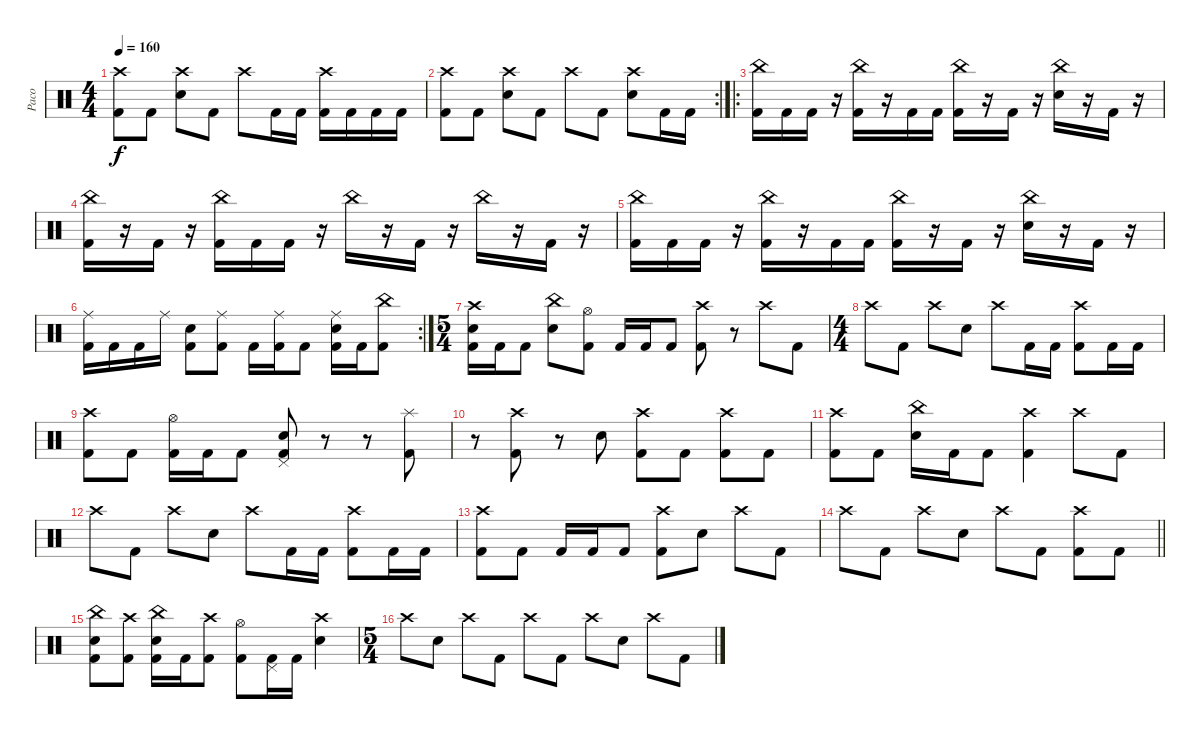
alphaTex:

\track ("Paco" "Paco") {instrument percussion}
\staff {score}
\articulation defaults
\ts (4 4)
\tempo 160
\clef neutral
\ks c
("Crash high (hit)" "Kick (hit) 2").8{dy f} "Kick (hit) 2".8 ("Crash high (hit)" "Electric Snare (hit)").8 "Kick (hit) 2".8 "Crash high (hit)".8 "Kick (hit) 2".16 "Kick (hit) 2".16 ("Crash high (hit)" "Kick (hit) 2").16 "Kick (hit) 2".16 "Kick (hit) 2".16 "Kick (hit) 2".16 |
\rc 2
("Crash high (hit)" "Kick (hit) 2").8 "Kick (hit) 2".8 ("Crash high (hit)" "Electric Snare (hit)").8 "Kick (hit) 2".8 "Crash high (hit)".8 "Kick (hit) 2".8 ("Crash high (hit)" "Electric Snare (hit)").8 "Kick (hit) 2".16 "Kick (hit) 2".16 |
\ro
("China (hit)" "Kick (hit) 2").16 "Kick (hit) 2".16 "Kick (hit) 2".16 r.16 ("China (hit)" "Kick (hit) 2").16 r.16 "Kick (hit) 2".16 "Kick (hit) 2".16 ("China (hit)" "Kick (hit) 2").16 r.16 "Kick (hit) 2".16 r.16 ("China (hit)" "Electric Snare (hit)").16 r.16 "Kick (hit) 2".16 r.16 |
("China (hit)" "Kick (hit) 2").16 r.16 "Kick (hit) 2".16 r.16 ("China (hit)" "Kick (hit) 2").16 "Kick (hit) 2".16 "Kick (hit) 2".16 r.16 "China (hit)".16 r.16 "Kick (hit) 2".16 r.16 "China (hit)".16 r.16 "Kick (hit) 2".16 r.16 |
("China (hit)" "Kick (hit) 2").16 "Kick (hit) 2".16 "Kick (hit) 2".16 r.16 ("China (hit)" "Kick (hit) 2").16 r.16 "Kick (hit) 2".16 "Kick (hit) 2".16 ("China (hit)" "Kick (hit) 2").16 r.16 "Kick (hit) 2".16 r.16 ("China (hit)" "Electric Snare (hit)").16 r.16 "Kick (hit) 2".16 r.16 |
\rc 2
("Ride (middle)" "Kick (hit) 2").16 "Kick (hit) 2".16 "Kick (hit) 2".16 "Ride (middle)".16 ("Electric Snare (hit)" "Kick (hit) 2").8 ("Ride (middle)" "Kick (hit) 2").8 "Kick (hit) 2".16 ("Ride (middle)" "Kick (hit) 2").16 "Kick (hit) 2".8 ("Ride (middle)" "Electric Snare (hit)" "Kick (hit) 2").16 "Kick (hit) 2".16 ("China (hit)" "Kick (hit) 2").8 |
\ts (5 4)
("Crash high (hit)" "Electric Snare (hit)" "Kick (hit) 2").16 "Kick (hit) 2".16 "Kick (hit) 2".8 ("China (hit)" "Electric Snare (hit)").8 ("Hi-Hat (open)" "Kick (hit) 2").8 "Kick (hit) 2".16 "Kick (hit) 2".16 "Kick (hit) 2".8 ("Crash high (hit)" "Kick (hit) 2").8 r.8 "Crash high (hit)".8 "Kick (hit) 2".8 |
\ts (4 4)
"Crash high (hit)".8 "Kick (hit) 2".8 "Crash high (hit)".8 "Electric Snare (hit)".8 "Crash high (hit)".8 "Kick (hit) 2".16 "Kick (hit) 2".16 ("Crash high (hit)" "Kick (hit) 2").8 "Kick (hit) 2".16 "Kick (hit) 2".16 |
("Crash high (hit)" "Kick (hit) 2").8 "Kick (hit) 2".8 ("Hi-Hat (open)" "Kick (hit) 2").16 "Kick (hit) 2".16 "Kick (hit) 2".8 ("Electric Snare (hit)" "Pedal Hi-Hat (hit)" "Kick (hit) 2").8 r.8 r.8 ("Splash (hit)" "Kick (hit) 2").8 |
r.8 ("Crash high (hit)" "Kick (hit) 2").8 r.8 "Electric Snare (hit)".8 ("Crash high (hit)" "Kick (hit) 2").8 "Kick (hit) 2".8 ("Crash high (hit)" "Kick (hit) 2").8 "Kick (hit) 2".8 |
("Crash high (hit)" "Kick (hit) 2").8 "Kick (hit) 2".8 ("China (hit)" "Electric Snare (hit)").16 "Kick (hit) 2".16 "Kick (hit) 2".8 ("Crash high (hit)" "Kick (hit) 2").4 "Crash high (hit)".8 "Kick (hit) 2".8 |
"Crash high (hit)".8 "Kick (hit) 2".8 "Crash high (hit)".8 "Electric Snare (hit)".8 "Crash high (hit)".8 "Kick (hit) 2".16 "Kick (hit) 2".16 ("Crash high (hit)" "Kick (hit) 2").8 "Kick (hit) 2".16 "Kick (hit) 2".16 |
("Crash high (hit)" "Kick (hit) 2").8 "Kick (hit) 2".8 "Kick (hit) 2".16 "Kick (hit) 2".16 "Kick (hit) 2".8 ("Crash high (hit)" "Kick (hit) 2").8 "Electric Snare (hit)".8 "Crash high (hit)".8 "Kick (hit) 2".8 |
\barLineRight lightlight "Crash high (hit)".8 "Kick (hit) 2".8 "Crash high (hit)".8 "Electric Snare (hit)".8 "Crash high (hit)".8 "Kick (hit) 2".8
("Crash high (hit)" "Kick (hit) 2").8 "Kick (hit) 2".8 |
("China (hit)" "Electric Snare (hit)" "Kick (hit) 2").8 ("Crash high (hit)" "Kick (hit) 2").8 ("China (hit)" "Electric Snare (hit)" "Kick (hit) 2").16 "Kick (hit) 2".16 ("Crash high (hit)" "Kick (hit) 2").8 ("Hi-Hat (open)" "Kick (hit) 2").8 ("Pedal Hi-Hat (hit)" "Kick (hit) 2").16 "Kick (hit) 2".16 ("Crash high (hit)" "Electric Snare (hit)").4 |
\ts (5 4)
"Crash high (hit)".8 "Electric Snare (hit)".8 "Crash high (hit)".8 "Kick (hit) 2".8 "Crash high (hit)".8 "Kick (hit) 2".8 "Crash high (hit)".8 "Electric Snare (hit)".8 "Crash high (hit)".8 "Kick (hit) 2".8
